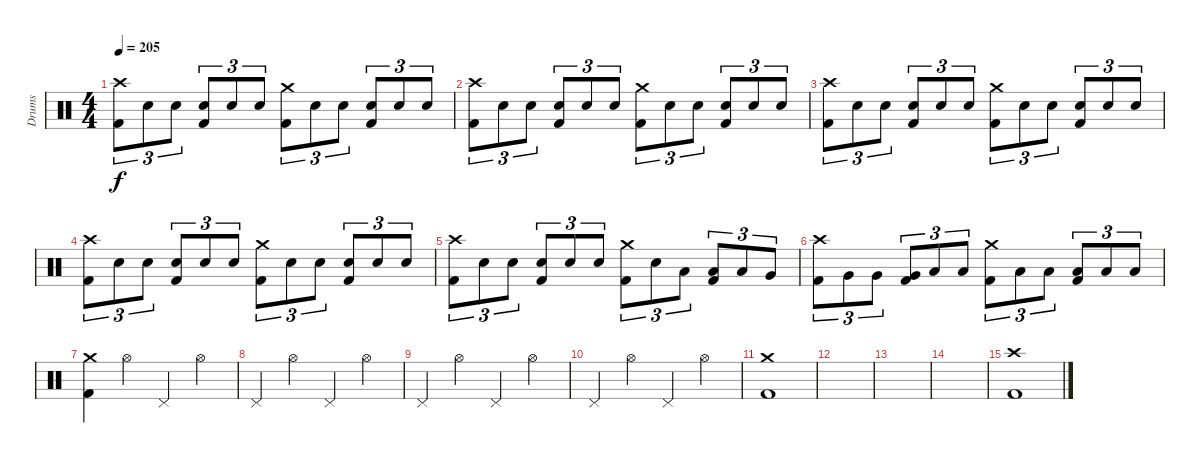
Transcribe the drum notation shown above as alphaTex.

\track ("Drums" "Drums") {instrument percussion}
\staff {score}
\articulation defaults
\ts (4 4)
\tempo 205
\clef neutral
\ks c
("Crash high (hit)" "Kick (hit) 2").8{tu (3 2) dy f} "Electric Snare (hit)".8{tu (3 2)} "Electric Snare (hit)".8{tu (3 2)} ("Electric Snare (hit)" "Kick (hit) 2").8{tu (3 2)} "Electric Snare (hit)".8{tu (3 2)} "Electric Snare (hit)".8{tu (3 2)} ("Crash medium (hit)" "Kick (hit) 2").8{tu (3 2)} "Electric Snare (hit)".8{tu (3 2)} "Electric Snare (hit)".8{tu (3 2)} ("Electric Snare (hit)" "Kick (hit) 2").8{tu (3 2)} "Electric Snare (hit)".8{tu (3 2)} "Electric Snare (hit)".8{tu (3 2)} |
("Crash high (hit)" "Kick (hit) 2").8{tu (3 2)} "Electric Snare (hit)".8{tu (3 2)} "Electric Snare (hit)".8{tu (3 2)} ("Electric Snare (hit)" "Kick (hit) 2").8{tu (3 2)} "Electric Snare (hit)".8{tu (3 2)} "Electric Snare (hit)".8{tu (3 2)} ("Crash medium (hit)" "Kick (hit) 2").8{tu (3 2)} "Electric Snare (hit)".8{tu (3 2)} "Electric Snare (hit)".8{tu (3 2)} ("Electric Snare (hit)" "Kick (hit) 2").8{tu (3 2)} "Electric Snare (hit)".8{tu (3 2)} "Electric Snare (hit)".8{tu (3 2)} |
("Crash high (hit)" "Kick (hit) 2").8{tu (3 2)} "Electric Snare (hit)".8{tu (3 2)} "Electric Snare (hit)".8{tu (3 2)} ("Electric Snare (hit)" "Kick (hit) 2").8{tu (3 2)} "Electric Snare (hit)".8{tu (3 2)} "Electric Snare (hit)".8{tu (3 2)} ("Crash medium (hit)" "Kick (hit) 2").8{tu (3 2)} "Electric Snare (hit)".8{tu (3 2)} "Electric Snare (hit)".8{tu (3 2)} ("Electric Snare (hit)" "Kick (hit) 2").8{tu (3 2)} "Electric Snare (hit)".8{tu (3 2)} "Electric Snare (hit)".8{tu (3 2)} |
("Crash high (hit)" "Kick (hit) 2").8{tu (3 2)} "Electric Snare (hit)".8{tu (3 2)} "Electric Snare (hit)".8{tu (3 2)} ("Electric Snare (hit)" "Kick (hit) 2").8{tu (3 2)} "Electric Snare (hit)".8{tu (3 2)} "Electric Snare (hit)".8{tu (3 2)} ("Crash medium (hit)" "Kick (hit) 2").8{tu (3 2)} "Electric Snare (hit)".8{tu (3 2)} "Electric Snare (hit)".8{tu (3 2)} ("Electric Snare (hit)" "Kick (hit) 2").8{tu (3 2)} "Electric Snare (hit)".8{tu (3 2)} "Electric Snare (hit)".8{tu (3 2)} |
("Crash high (hit)" "Kick (hit) 2").8{tu (3 2)} "Electric Snare (hit)".8{tu (3 2)} "Electric Snare (hit)".8{tu (3 2)} ("Electric Snare (hit)" "Kick (hit) 2").8{tu (3 2)} "Electric Snare (hit)".8{tu (3 2)} "Electric Snare (hit)".8{tu (3 2)} ("Crash medium (hit)" "Kick (hit) 2").8{tu (3 2)} "Electric Snare (hit)".8{tu (3 2)} "Low Tom (hit)".8{tu (3 2)} ("Low Tom (hit)" "Kick (hit) 2").8{tu (3 2)} "Low Tom (hit)".8{tu (3 2)} "Very Low Tom (hit)".8{tu (3 2)} |
("Crash high (hit)" "Kick (hit) 2").8{tu (3 2)} "Very Low Tom (hit)".8{tu (3 2)} "Very Low Tom (hit)".8{tu (3 2)} ("Very Low Tom (hit)" "Kick (hit) 2").8{tu (3 2)} "Low Floor Tom (hit)".8{tu (3 2)} "Low Floor Tom (hit)".8{tu (3 2)} ("Crash medium (hit)" "Kick (hit) 2").8{tu (3 2)} "Low Floor Tom (hit)".8{tu (3 2)} "Low Floor Tom (hit)".8{tu (3 2)} ("Low Floor Tom (hit)" "Kick (hit) 2").8{tu (3 2)} "Low Floor Tom (hit)".8{tu (3 2)} "Low Floor Tom (hit)".8{tu (3 2)} |
("Crash medium (hit)" "Kick (hit) 2").4 "Hi-Hat (open)".4 "Pedal Hi-Hat (hit)".4 "Hi-Hat (open)".4 |
"Pedal Hi-Hat (hit)".4 "Hi-Hat (open)".4 "Pedal Hi-Hat (hit)".4 "Hi-Hat (open)".4 |
"Pedal Hi-Hat (hit)".4 "Hi-Hat (open)".4 "Pedal Hi-Hat (hit)".4 "Hi-Hat (open)".4 |
"Pedal Hi-Hat (hit)".4 "Hi-Hat (open)".4 "Pedal Hi-Hat (hit)".4 "Hi-Hat (open)".4 |
("Crash medium (hit)" "Kick (hit) 2").1 |
|
|
|
("Crash high (hit)" "Kick (hit) 2").1
